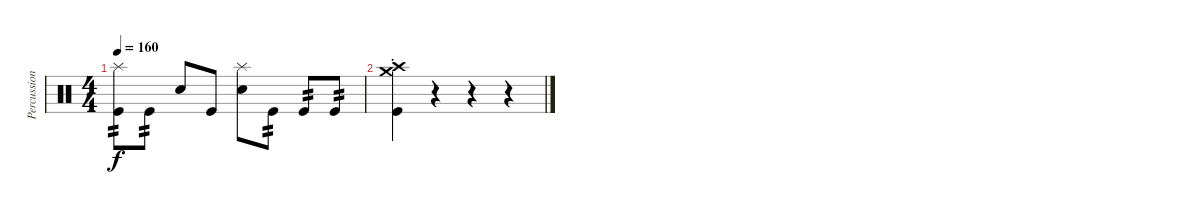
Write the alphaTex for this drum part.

\track ("Percussion" "Percussion") {instrument percussion}
\staff {score}
\articulation defaults
\ts (4 4)
\tempo 160
\clef neutral
\ks c
("Splash (hit)" "Kick (hit)").8{tp 2 dy f} "Kick (hit)".8{tp 2} "Snare (hit) 2".8 "Kick (hit)".8 ("Splash (hit)" "Snare (hit) 2").8 "Kick (hit)".8{tp 2} "Kick (hit)".8{tp 2} "Kick (hit)".8{tp 2} |
("Kick (hit)"{st} "Crash high (hit)"{st} "Crash medium (hit)"{st}).4 r.4 r.4 r.4
